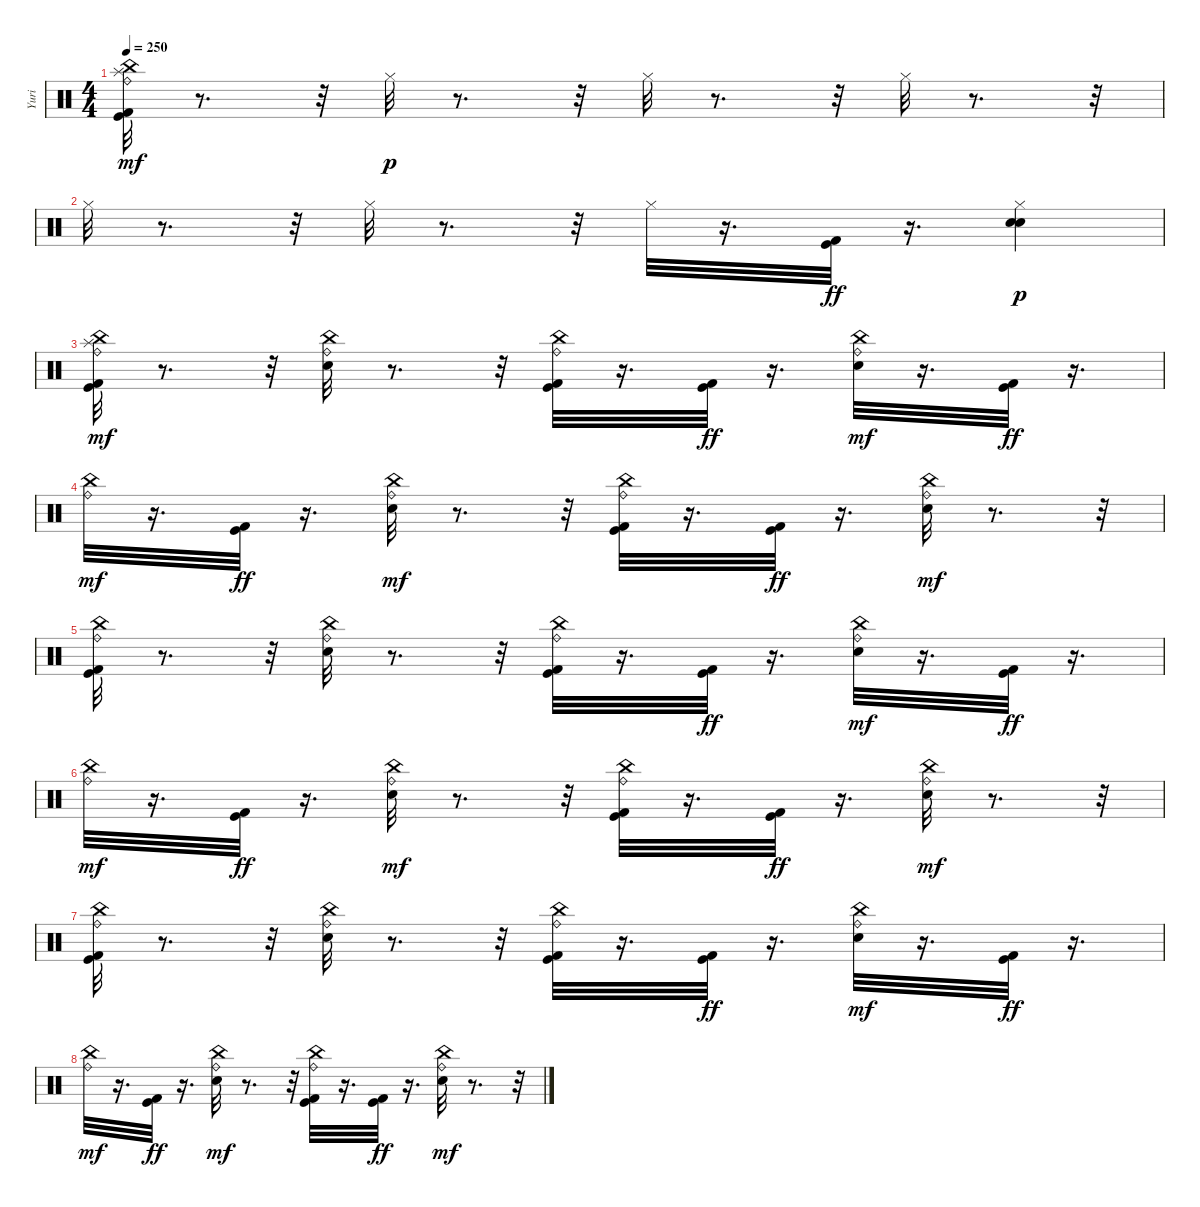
\track ("Yuri" "Yuri") {instrument percussion}
\staff {score}
\articulation defaults
\ts (4 4)
\tempo 250
\clef neutral
\ks c
("Kick (hit) 2" "Kick (hit)" "Ride (bell)" "China (hit)" "Splash (hit)").32{dy mf} r.8{d} r.32 "Hi-Hat (closed)".32{dy p} r.8{d} r.32 "Hi-Hat (closed)".32 r.8{d} r.32 "Hi-Hat (closed)".32 r.8{d} r.32 |
"Hi-Hat (closed)".32 r.8{d} r.32 "Hi-Hat (closed)".32 r.8{d} r.32 "Hi-Hat (closed)".32 r.16{d} ("Kick (hit) 2" "Kick (hit)").32{dy ff} r.16{d} ("Hi-Hat (closed)" "Snare (hit) 2" "Snare (hit) 2").4{dy p} |
("Kick (hit) 2" "Kick (hit)" "Ride (bell)" "China (hit)" "Splash (hit)").32{dy mf} r.8{d} r.32 ("Snare (hit) 2" "Ride (bell)" "China (hit)").32 r.8{d} r.32 ("Kick (hit) 2" "Kick (hit)" "Ride (bell)" "China (hit)").32 r.16{d} ("Kick (hit) 2" "Kick (hit)").32{dy ff} r.16{d} ("Snare (hit) 2" "Ride (bell)" "China (hit)").32{dy mf} r.16{d} ("Kick (hit) 2" "Kick (hit)").32{dy ff} r.16{d} |
("Ride (bell)" "China (hit)").32{dy mf} r.16{d} ("Kick (hit) 2" "Kick (hit)").32{dy ff} r.16{d} ("Snare (hit) 2" "Ride (bell)" "China (hit)").32{dy mf} r.8{d} r.32 ("Kick (hit) 2" "Kick (hit)" "Ride (bell)" "China (hit)").32 r.16{d} ("Kick (hit) 2" "Kick (hit)").32{dy ff} r.16{d} ("Snare (hit) 2" "Ride (bell)" "China (hit)").32{dy mf} r.8{d} r.32 |
("Kick (hit) 2" "Kick (hit)" "Ride (bell)" "China (hit)").32 r.8{d} r.32 ("Snare (hit) 2" "Ride (bell)" "China (hit)").32 r.8{d} r.32 ("Kick (hit) 2" "Kick (hit)" "Ride (bell)" "China (hit)").32 r.16{d} ("Kick (hit) 2" "Kick (hit)").32{dy ff} r.16{d} ("Snare (hit) 2" "Ride (bell)" "China (hit)").32{dy mf} r.16{d} ("Kick (hit) 2" "Kick (hit)").32{dy ff} r.16{d} |
("Ride (bell)" "China (hit)").32{dy mf} r.16{d} ("Kick (hit) 2" "Kick (hit)").32{dy ff} r.16{d} ("Snare (hit) 2" "Ride (bell)" "China (hit)").32{dy mf} r.8{d} r.32 ("Kick (hit) 2" "Kick (hit)" "Ride (bell)" "China (hit)").32 r.16{d} ("Kick (hit) 2" "Kick (hit)").32{dy ff} r.16{d} ("Snare (hit) 2" "Ride (bell)" "China (hit)").32{dy mf} r.8{d} r.32 |
("Kick (hit) 2" "Kick (hit)" "Ride (bell)" "China (hit)").32 r.8{d} r.32 ("Snare (hit) 2" "Ride (bell)" "China (hit)").32 r.8{d} r.32 ("Kick (hit) 2" "Kick (hit)" "Ride (bell)" "China (hit)").32 r.16{d} ("Kick (hit) 2" "Kick (hit)").32{dy ff} r.16{d} ("Snare (hit) 2" "Ride (bell)" "China (hit)").32{dy mf} r.16{d} ("Kick (hit) 2" "Kick (hit)").32{dy ff} r.16{d} |
("Ride (bell)" "China (hit)").32{dy mf} r.16{d} ("Kick (hit) 2" "Kick (hit)").32{dy ff} r.16{d} ("Snare (hit) 2" "Ride (bell)" "China (hit)").32{dy mf} r.8{d} r.32 ("Kick (hit) 2" "Kick (hit)" "Ride (bell)" "China (hit)").32 r.16{d} ("Kick (hit) 2" "Kick (hit)").32{dy ff} r.16{d} ("Snare (hit) 2" "Ride (bell)" "China (hit)").32{dy mf} r.8{d} r.32
